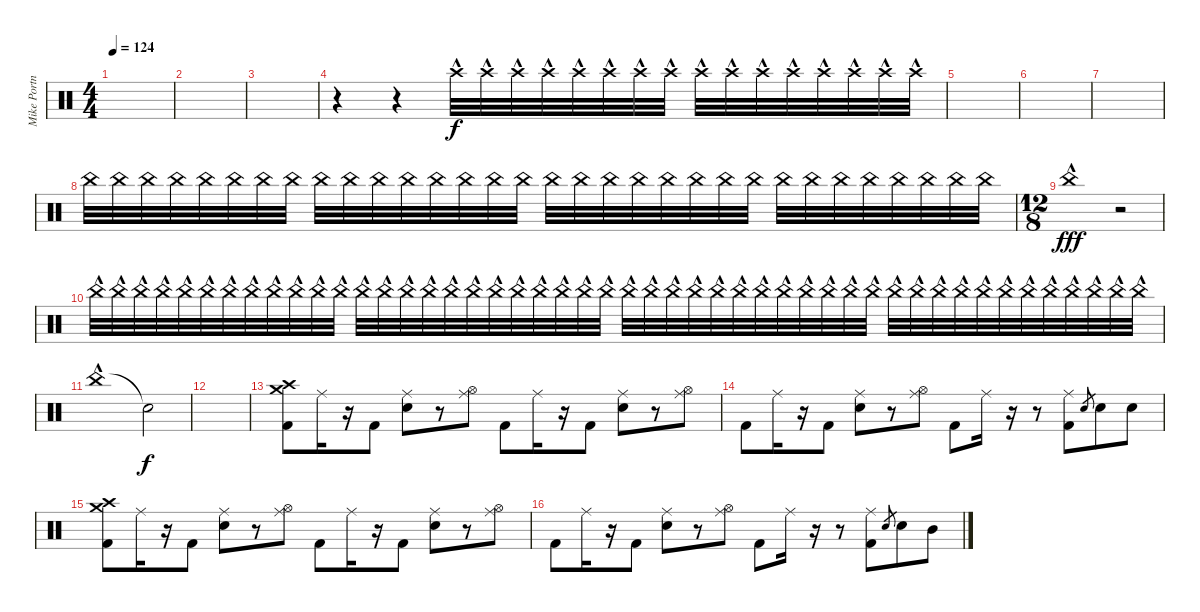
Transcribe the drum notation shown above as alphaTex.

\track ("Mike Portnoy Drums" "Mike Portn") {instrument percussion}
\staff {score}
\articulation defaults
\ts (4 4)
\tempo 124
\clef neutral
\ks c
|
|
|
r.4{volume 0} r.4 "Crash high (hit)"{hac}.32{volume 13} "Crash high (hit)"{hac}.32 "Crash high (hit)"{hac}.32 "Crash high (hit)"{hac}.32 "Crash high (hit)"{hac}.32 "Crash high (hit)"{hac}.32 "Crash high (hit)"{hac}.32 "Crash high (hit)"{hac}.32 "Crash high (hit)"{hac}.32 "Crash high (hit)"{hac}.32 "Crash high (hit)"{hac}.32 "Crash high (hit)"{hac}.32 "Crash high (hit)"{hac}.32 "Crash high (hit)"{hac}.32 "Crash high (hit)"{hac}.32 "Crash high (hit)"{hac}.32 |
|
|
|
"China (hit)".32{dy f volume 0} "China (hit)".32{volume 13} "China (hit)".32 "China (hit)".32 "China (hit)".32 "China (hit)".32 "China (hit)".32 "China (hit)".32 "China (hit)".32 "China (hit)".32 "China (hit)".32 "China (hit)".32 "China (hit)".32 "China (hit)".32 "China (hit)".32 "China (hit)".32 "China (hit)".32 "China (hit)".32 "China (hit)".32 "China (hit)".32 "China (hit)".32 "China (hit)".32 "China (hit)".32 "China (hit)".32 "China (hit)".32 "China (hit)".32 "China (hit)".32 "China (hit)".32 "China (hit)".32 "China (hit)".32 "China (hit)".32 "China (hit)".32 |
\ts (12 8)
"China (hit)"{hac}.1{dy fff} r.2 |
"China (hit)"{hac}.32{volume 0} "China (hit)"{hac}.32{volume 13} "China (hit)"{hac}.32 "China (hit)"{hac}.32 "China (hit)"{hac}.32 "China (hit)"{hac}.32 "China (hit)"{hac}.32 "China (hit)"{hac}.32 "China (hit)"{hac}.32 "China (hit)"{hac}.32 "China (hit)"{hac}.32 "China (hit)"{hac}.32 "China (hit)"{hac}.32 "China (hit)"{hac}.32 "China (hit)"{hac}.32 "China (hit)"{hac}.32 "China (hit)"{hac}.32 "China (hit)"{hac}.32 "China (hit)"{hac}.32 "China (hit)"{hac}.32 "China (hit)"{hac}.32 "China (hit)"{hac}.32 "China (hit)"{hac}.32 "China (hit)"{hac}.32 "China (hit)"{hac}.32 "China (hit)"{hac}.32 "China (hit)"{hac}.32 "China (hit)"{hac}.32 "China (hit)"{hac}.32 "China (hit)"{hac}.32 "China (hit)"{hac}.32 "China (hit)"{hac}.32 "China (hit)"{hac}.32 "China (hit)"{hac}.32 "China (hit)"{hac}.32 "China (hit)"{hac}.32 "China (hit)"{hac}.32 "China (hit)"{hac}.32 "China (hit)"{hac}.32 "China (hit)"{hac}.32 "China (hit)"{hac}.32 "China (hit)"{hac}.32 "China (hit)"{hac}.32 "China (hit)"{hac}.32 "China (hit)"{hac}.32 "China (hit)"{hac}.32 "China (hit)"{hac}.32 "China (hit)"{hac}.32 |
"China (hit)"{hac}.1 "Snare (hit)"{t}.2{dy f} |
|
("Crash medium (hit)" "Crash high (hit)" "Kick (hit) 2").8 "Ride (middle)".16 r.16 "Kick (hit) 2".8 ("Ride (middle)" "Electric Snare (hit)").8 r.8 ("Ride (middle)" "Hi-Hat (open)").8 "Kick (hit) 2".8 "Ride (middle)".16 r.16 "Kick (hit) 2".8 ("Ride (middle)" "Electric Snare (hit)").8 r.8 ("Ride (middle)" "Hi-Hat (open)").8 |
"Kick (hit) 2".8 "Ride (middle)".16 r.16 "Kick (hit) 2".8 ("Ride (middle)" "Electric Snare (hit)").8 r.8 ("Ride (middle)" "Hi-Hat (open)").8 "Kick (hit) 2".8 "Ride (middle)".16 r.16 r.8 ("Ride (middle)" "Kick (hit) 2").8 "Electric Snare (hit)".8{gr} "Electric Snare (hit)".8 "Electric Snare (hit)".8 |
("Crash medium (hit)" "Crash high (hit)" "Kick (hit) 2").8 "Ride (middle)".16 r.16 "Kick (hit) 2".8 ("Ride (middle)" "Electric Snare (hit)").8 r.8 ("Ride (middle)" "Hi-Hat (open)").8 "Kick (hit) 2".8 "Ride (middle)".16 r.16 "Kick (hit) 2".8 ("Ride (middle)" "Electric Snare (hit)").8 r.8 ("Ride (middle)" "Hi-Hat (open)").8 |
"Kick (hit) 2".8 "Ride (middle)".16 r.16 "Kick (hit) 2".8 ("Ride (middle)" "Electric Snare (hit)").8 r.8 ("Ride (middle)" "Hi-Hat (open)").8 "Kick (hit) 2".8 "Ride (middle)".16 r.16 r.8 ("Ride (middle)" "Kick (hit) 2").8 "Electric Snare (hit)".8{gr} "Electric Snare (hit)".8 "Mid Tom (hit)".8
